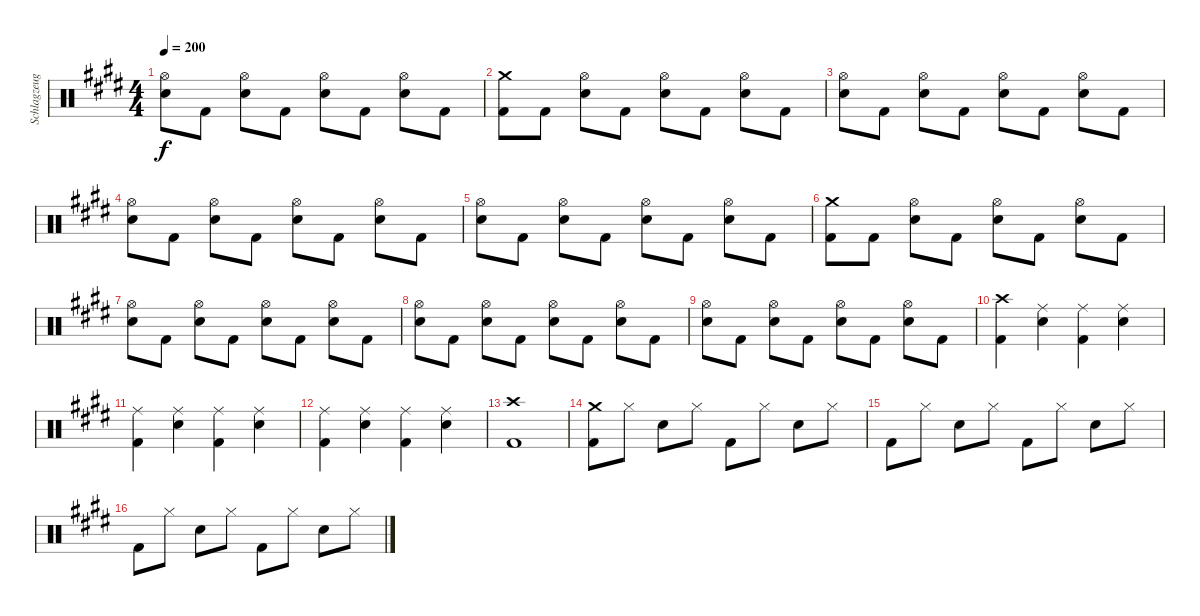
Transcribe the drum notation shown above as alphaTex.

\track ("Schlagzeug" "Schlagzeug") {instrument percussion}
\staff {score}
\articulation defaults
\ts (4 4)
\tempo 200
\clef neutral
\ks e
("Hi-Hat (open)" "Snare (hit) 2").8{dy f} "Kick (hit) 2".8 ("Hi-Hat (open)" "Snare (hit) 2").8 "Kick (hit) 2".8 ("Hi-Hat (open)" "Snare (hit) 2").8 "Kick (hit) 2".8 ("Hi-Hat (open)" "Snare (hit) 2").8 "Kick (hit) 2".8 |
("Crash medium (hit)" "Kick (hit) 2").8 "Kick (hit) 2".8 ("Hi-Hat (open)" "Snare (hit) 2").8 "Kick (hit) 2".8 ("Hi-Hat (open)" "Snare (hit) 2").8 "Kick (hit) 2".8 ("Hi-Hat (open)" "Snare (hit) 2").8 "Kick (hit) 2".8 |
("Hi-Hat (open)" "Snare (hit) 2").8 "Kick (hit) 2".8 ("Hi-Hat (open)" "Snare (hit) 2").8 "Kick (hit) 2".8 ("Hi-Hat (open)" "Snare (hit) 2").8 "Kick (hit) 2".8 ("Hi-Hat (open)" "Snare (hit) 2").8 "Kick (hit) 2".8 |
("Hi-Hat (open)" "Snare (hit) 2").8 "Kick (hit) 2".8 ("Hi-Hat (open)" "Snare (hit) 2").8 "Kick (hit) 2".8 ("Hi-Hat (open)" "Snare (hit) 2").8 "Kick (hit) 2".8 ("Hi-Hat (open)" "Snare (hit) 2").8 "Kick (hit) 2".8 |
("Hi-Hat (open)" "Snare (hit) 2").8 "Kick (hit) 2".8 ("Hi-Hat (open)" "Snare (hit) 2").8 "Kick (hit) 2".8 ("Hi-Hat (open)" "Snare (hit) 2").8 "Kick (hit) 2".8 ("Hi-Hat (open)" "Snare (hit) 2").8 "Kick (hit) 2".8 |
("Crash medium (hit)" "Kick (hit) 2").8 "Kick (hit) 2".8 ("Hi-Hat (open)" "Snare (hit) 2").8 "Kick (hit) 2".8 ("Hi-Hat (open)" "Snare (hit) 2").8 "Kick (hit) 2".8 ("Hi-Hat (open)" "Snare (hit) 2").8 "Kick (hit) 2".8 |
("Hi-Hat (open)" "Snare (hit) 2").8 "Kick (hit) 2".8 ("Hi-Hat (open)" "Snare (hit) 2").8 "Kick (hit) 2".8 ("Hi-Hat (open)" "Snare (hit) 2").8 "Kick (hit) 2".8 ("Hi-Hat (open)" "Snare (hit) 2").8 "Kick (hit) 2".8 |
("Hi-Hat (open)" "Snare (hit) 2").8 "Kick (hit) 2".8 ("Hi-Hat (open)" "Snare (hit) 2").8 "Kick (hit) 2".8 ("Hi-Hat (open)" "Snare (hit) 2").8 "Kick (hit) 2".8 ("Hi-Hat (open)" "Snare (hit) 2").8 "Kick (hit) 2".8 |
("Hi-Hat (open)" "Snare (hit) 2").8 "Kick (hit) 2".8 ("Hi-Hat (open)" "Snare (hit) 2").8 "Kick (hit) 2".8 ("Hi-Hat (open)" "Snare (hit) 2").8 "Kick (hit) 2".8 ("Hi-Hat (open)" "Snare (hit) 2").8 "Kick (hit) 2".8 |
("Crash high (hit)" "Kick (hit) 2").4 ("Ride (middle)" "Snare (hit) 2").4 ("Ride (middle)" "Kick (hit) 2").4 ("Ride (middle)" "Snare (hit) 2").4 |
("Ride (middle)" "Kick (hit) 2").4 ("Ride (middle)" "Snare (hit) 2").4 ("Ride (middle)" "Kick (hit) 2").4 ("Ride (middle)" "Snare (hit) 2").4 |
("Ride (middle)" "Kick (hit) 2").4 ("Ride (middle)" "Snare (hit) 2").4 ("Ride (middle)" "Kick (hit) 2").4 ("Ride (middle)" "Snare (hit) 2").4 |
("Crash high (hit)" "Kick (hit) 2").1 |
("Crash medium (hit)" "Kick (hit) 2").8 "Hi-Hat (closed)".8 "Snare (hit) 2".8 "Hi-Hat (closed)".8 "Kick (hit) 2".8 "Hi-Hat (closed)".8 "Snare (hit) 2".8 "Hi-Hat (closed)".8 |
"Kick (hit) 2".8 "Hi-Hat (closed)".8 "Snare (hit) 2".8 "Hi-Hat (closed)".8 "Kick (hit) 2".8 "Hi-Hat (closed)".8 "Snare (hit) 2".8 "Hi-Hat (closed)".8 |
"Kick (hit) 2".8 "Hi-Hat (closed)".8 "Snare (hit) 2".8 "Hi-Hat (closed)".8 "Kick (hit) 2".8 "Hi-Hat (closed)".8 "Snare (hit) 2".8 "Hi-Hat (closed)".8
